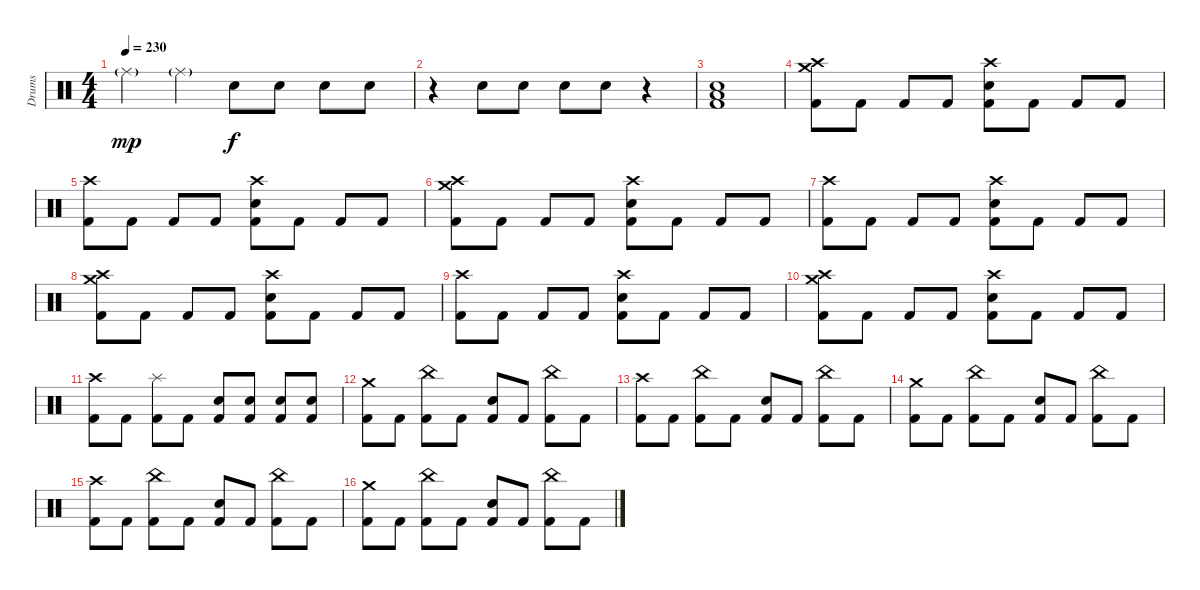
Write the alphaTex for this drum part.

\track ("Drums" "Drums") {instrument percussion}
\staff {score}
\articulation defaults
\ts (4 4)
\tempo 230
\clef neutral
\ks c "Ride (middle)"{g}.4{dy mp} "Ride (middle)"{g}.4 "Electric Snare (hit)".8{dy f} "Electric Snare (hit)".8 "Electric Snare (hit)".8 "Electric Snare (hit)".8
|
r.4 "Electric Snare (hit)".8 "Electric Snare (hit)".8 "Electric Snare (hit)".8 "Electric Snare (hit)".8 r.4 |
("Low Floor Tom (hit)" "Electric Snare (hit)" "Kick (hit) 2").1 |
("Crash medium (hit)" "Crash high (hit)" "Kick (hit) 2").8 "Kick (hit) 2".8 "Kick (hit) 2".8 "Kick (hit) 2".8 ("Crash high (hit)" "Electric Snare (hit)" "Kick (hit) 2").8 "Kick (hit) 2".8 "Kick (hit) 2".8 "Kick (hit) 2".8 |
("Crash high (hit)" "Kick (hit) 2").8 "Kick (hit) 2".8 "Kick (hit) 2".8 "Kick (hit) 2".8 ("Crash high (hit)" "Electric Snare (hit)" "Kick (hit) 2").8 "Kick (hit) 2".8 "Kick (hit) 2".8 "Kick (hit) 2".8 |
("Crash medium (hit)" "Crash high (hit)" "Kick (hit) 2").8 "Kick (hit) 2".8 "Kick (hit) 2".8 "Kick (hit) 2".8 ("Crash high (hit)" "Electric Snare (hit)" "Kick (hit) 2").8 "Kick (hit) 2".8 "Kick (hit) 2".8 "Kick (hit) 2".8 |
("Crash high (hit)" "Kick (hit) 2").8 "Kick (hit) 2".8 "Kick (hit) 2".8 "Kick (hit) 2".8 ("Crash high (hit)" "Electric Snare (hit)" "Kick (hit) 2").8 "Kick (hit) 2".8 "Kick (hit) 2".8 "Kick (hit) 2".8 |
("Crash medium (hit)" "Crash high (hit)" "Kick (hit) 2").8 "Kick (hit) 2".8 "Kick (hit) 2".8 "Kick (hit) 2".8 ("Crash high (hit)" "Electric Snare (hit)" "Kick (hit) 2").8 "Kick (hit) 2".8 "Kick (hit) 2".8 "Kick (hit) 2".8 |
("Crash high (hit)" "Kick (hit) 2").8 "Kick (hit) 2".8 "Kick (hit) 2".8 "Kick (hit) 2".8 ("Crash high (hit)" "Electric Snare (hit)" "Kick (hit) 2").8 "Kick (hit) 2".8 "Kick (hit) 2".8 "Kick (hit) 2".8 |
("Crash medium (hit)" "Crash high (hit)" "Kick (hit) 2").8 "Kick (hit) 2".8 "Kick (hit) 2".8 "Kick (hit) 2".8 ("Crash high (hit)" "Electric Snare (hit)" "Kick (hit) 2").8 "Kick (hit) 2".8 "Kick (hit) 2".8 "Kick (hit) 2".8 |
("Crash high (hit)" "Kick (hit) 2").8 "Kick (hit) 2".8 ("Splash (hit)" "Kick (hit) 2").8 "Kick (hit) 2".8 ("Electric Snare (hit)" "Kick (hit) 2").8 ("Electric Snare (hit)" "Kick (hit) 2").8 ("Electric Snare (hit)" "Kick (hit) 2").8 ("Electric Snare (hit)" "Kick (hit) 2").8 |
("Crash medium (hit)" "Kick (hit) 2").8 "Kick (hit) 2".8 ("China (hit)" "Kick (hit) 2").8 "Kick (hit) 2".8 ("Electric Snare (hit)" "Kick (hit) 2").8 "Kick (hit) 2".8 ("China (hit)" "Kick (hit) 2").8 "Kick (hit) 2".8 |
("Crash high (hit)" "Kick (hit) 2").8 "Kick (hit) 2".8 ("China (hit)" "Kick (hit) 2").8 "Kick (hit) 2".8 ("Electric Snare (hit)" "Kick (hit) 2").8 "Kick (hit) 2".8 ("China (hit)" "Kick (hit) 2").8 "Kick (hit) 2".8 |
("Crash medium (hit)" "Kick (hit) 2").8 "Kick (hit) 2".8 ("China (hit)" "Kick (hit) 2").8 "Kick (hit) 2".8 ("Electric Snare (hit)" "Kick (hit) 2").8 "Kick (hit) 2".8 ("China (hit)" "Kick (hit) 2").8 "Kick (hit) 2".8 |
("Crash high (hit)" "Kick (hit) 2").8 "Kick (hit) 2".8 ("China (hit)" "Kick (hit) 2").8 "Kick (hit) 2".8 ("Electric Snare (hit)" "Kick (hit) 2").8 "Kick (hit) 2".8 ("China (hit)" "Kick (hit) 2").8 "Kick (hit) 2".8 |
("Crash medium (hit)" "Kick (hit) 2").8 "Kick (hit) 2".8 ("China (hit)" "Kick (hit) 2").8 "Kick (hit) 2".8 ("Electric Snare (hit)" "Kick (hit) 2").8 "Kick (hit) 2".8 ("China (hit)" "Kick (hit) 2").8 "Kick (hit) 2".8
